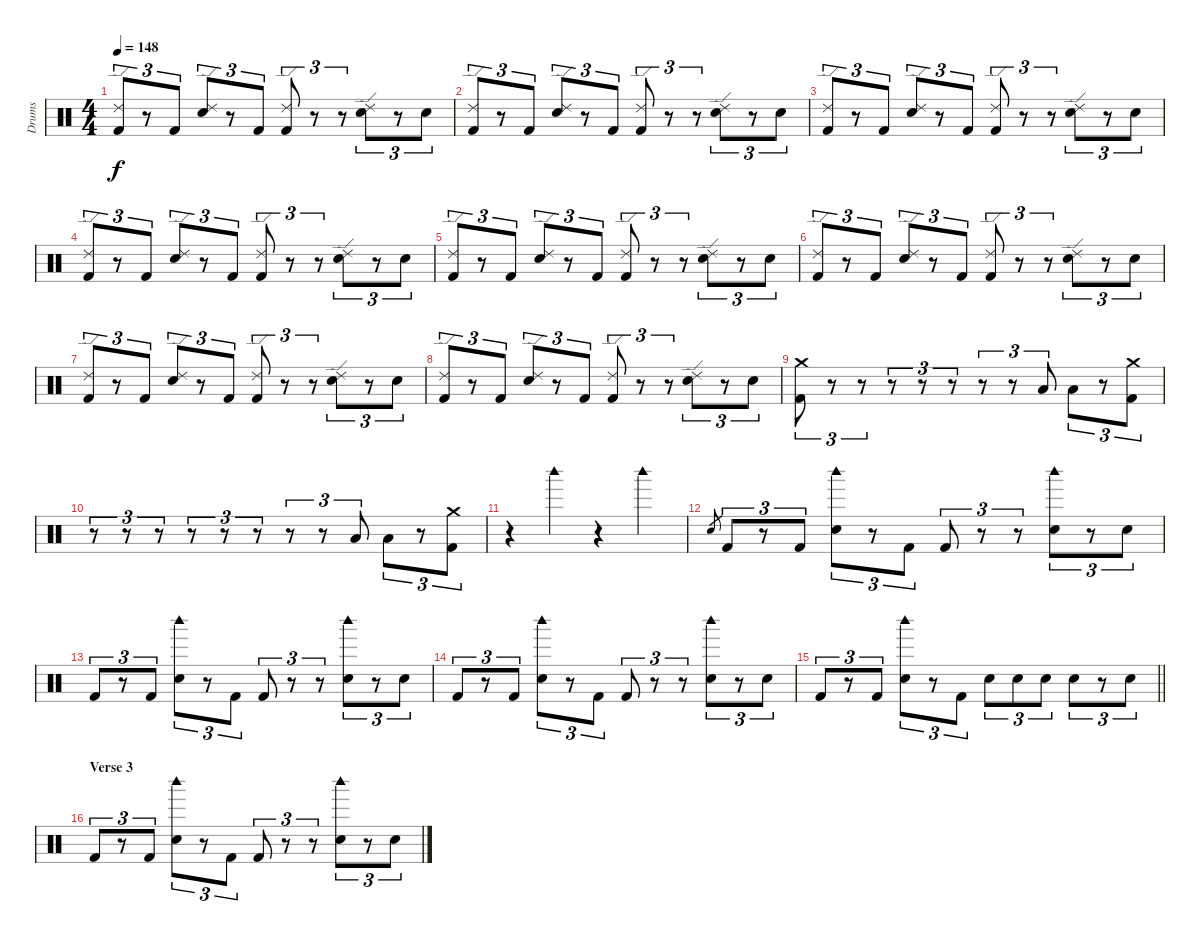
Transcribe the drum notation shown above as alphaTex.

\track ("Drums" "Drums") {instrument percussion}
\staff {score}
\articulation defaults
\ts (4 4)
\tempo 148
\clef neutral
\ks c
("Ride (edge) 2" "Kick (hit) 2").8{tu (3 2) dy f} r.8{tu (3 2)} "Kick (hit) 2".8{tu (3 2)} ("Ride (edge) 2" "Snare (hit) 2").8{tu (3 2)} r.8{tu (3 2)} "Kick (hit) 2".8{tu (3 2)} ("Ride (edge) 2" "Kick (hit) 2").8{tu (3 2)} r.8{tu (3 2)} r.8{tu (3 2)} ("Ride (edge) 2" "Snare (hit) 2").8{tu (3 2)} r.8{tu (3 2)} "Snare (hit) 2".8{tu (3 2)} |
("Ride (edge) 2" "Kick (hit) 2").8{tu (3 2)} r.8{tu (3 2)} "Kick (hit) 2".8{tu (3 2)} ("Ride (edge) 2" "Snare (hit) 2").8{tu (3 2)} r.8{tu (3 2)} "Kick (hit) 2".8{tu (3 2)} ("Ride (edge) 2" "Kick (hit) 2").8{tu (3 2)} r.8{tu (3 2)} r.8{tu (3 2)} ("Ride (edge) 2" "Snare (hit) 2").8{tu (3 2)} r.8{tu (3 2)} "Snare (hit) 2".8{tu (3 2)} |
("Ride (edge) 2" "Kick (hit) 2").8{tu (3 2)} r.8{tu (3 2)} "Kick (hit) 2".8{tu (3 2)} ("Ride (edge) 2" "Snare (hit) 2").8{tu (3 2)} r.8{tu (3 2)} "Kick (hit) 2".8{tu (3 2)} ("Ride (edge) 2" "Kick (hit) 2").8{tu (3 2)} r.8{tu (3 2)} r.8{tu (3 2)} ("Ride (edge) 2" "Snare (hit) 2").8{tu (3 2)} r.8{tu (3 2)} "Snare (hit) 2".8{tu (3 2)} |
("Ride (edge) 2" "Kick (hit) 2").8{tu (3 2)} r.8{tu (3 2)} "Kick (hit) 2".8{tu (3 2)} ("Ride (edge) 2" "Snare (hit) 2").8{tu (3 2)} r.8{tu (3 2)} "Kick (hit) 2".8{tu (3 2)} ("Ride (edge) 2" "Kick (hit) 2").8{tu (3 2)} r.8{tu (3 2)} r.8{tu (3 2)} ("Ride (edge) 2" "Snare (hit) 2").8{tu (3 2)} r.8{tu (3 2)} "Snare (hit) 2".8{tu (3 2)} |
("Ride (edge) 2" "Kick (hit) 2").8{tu (3 2)} r.8{tu (3 2)} "Kick (hit) 2".8{tu (3 2)} ("Ride (edge) 2" "Snare (hit) 2").8{tu (3 2)} r.8{tu (3 2)} "Kick (hit) 2".8{tu (3 2)} ("Ride (edge) 2" "Kick (hit) 2").8{tu (3 2)} r.8{tu (3 2)} r.8{tu (3 2)} ("Ride (edge) 2" "Snare (hit) 2").8{tu (3 2)} r.8{tu (3 2)} "Snare (hit) 2".8{tu (3 2)} |
("Ride (edge) 2" "Kick (hit) 2").8{tu (3 2)} r.8{tu (3 2)} "Kick (hit) 2".8{tu (3 2)} ("Ride (edge) 2" "Snare (hit) 2").8{tu (3 2)} r.8{tu (3 2)} "Kick (hit) 2".8{tu (3 2)} ("Ride (edge) 2" "Kick (hit) 2").8{tu (3 2)} r.8{tu (3 2)} r.8{tu (3 2)} ("Ride (edge) 2" "Snare (hit) 2").8{tu (3 2)} r.8{tu (3 2)} "Snare (hit) 2".8{tu (3 2)} |
("Ride (edge) 2" "Kick (hit) 2").8{tu (3 2)} r.8{tu (3 2)} "Kick (hit) 2".8{tu (3 2)} ("Ride (edge) 2" "Snare (hit) 2").8{tu (3 2)} r.8{tu (3 2)} "Kick (hit) 2".8{tu (3 2)} ("Ride (edge) 2" "Kick (hit) 2").8{tu (3 2)} r.8{tu (3 2)} r.8{tu (3 2)} ("Ride (edge) 2" "Snare (hit) 2").8{tu (3 2)} r.8{tu (3 2)} "Snare (hit) 2".8{tu (3 2)} |
("Ride (edge) 2" "Kick (hit) 2").8{tu (3 2)} r.8{tu (3 2)} "Kick (hit) 2".8{tu (3 2)} ("Ride (edge) 2" "Snare (hit) 2").8{tu (3 2)} r.8{tu (3 2)} "Kick (hit) 2".8{tu (3 2)} ("Ride (edge) 2" "Kick (hit) 2").8{tu (3 2)} r.8{tu (3 2)} r.8{tu (3 2)} ("Ride (edge) 2" "Snare (hit) 2").8{tu (3 2)} r.8{tu (3 2)} "Snare (hit) 2".8{tu (3 2)} |
("Crash medium (hit)" "Kick (hit) 2").8{tu (3 2)} r.8{tu (3 2)} r.8{tu (3 2)} r.8{tu (3 2)} r.8{tu (3 2)} r.8{tu (3 2)} r.8{tu (3 2)} r.8{tu (3 2)} "Low Tom (hit)".8{tu (3 2)} "Low Tom (hit)".8{tu (3 2)} r.8{tu (3 2)} ("Crash medium (hit)" "Kick (hit) 2").8{tu (3 2)} |
r.8{tu (3 2)} r.8{tu (3 2)} r.8{tu (3 2)} r.8{tu (3 2)} r.8{tu (3 2)} r.8{tu (3 2)} r.8{tu (3 2)} r.8{tu (3 2)} "Low Tom (hit)".8{tu (3 2)} "Low Tom (hit)".8{tu (3 2)} r.8{tu (3 2)} ("Crash medium (hit)" "Kick (hit) 2").8{tu (3 2)} |
r.4 "Woodblock high (hit)".4 r.4 "Woodblock high (hit)".4 |
"Snare (hit) 2".8{gr} "Kick (hit) 2".8{tu (3 2)} r.8{tu (3 2)} "Kick (hit) 2".8{tu (3 2)} ("Woodblock high (hit)" "Snare (hit) 2").8{tu (3 2)} r.8{tu (3 2)} "Kick (hit) 2".8{tu (3 2)} "Kick (hit) 2".8{tu (3 2)} r.8{tu (3 2)} r.8{tu (3 2)} ("Woodblock high (hit)" "Snare (hit) 2").8{tu (3 2)} r.8{tu (3 2)} "Snare (hit) 2".8{tu (3 2)} |
"Kick (hit) 2".8{tu (3 2)} r.8{tu (3 2)} "Kick (hit) 2".8{tu (3 2)} ("Woodblock high (hit)" "Snare (hit) 2").8{tu (3 2)} r.8{tu (3 2)} "Kick (hit) 2".8{tu (3 2)} "Kick (hit) 2".8{tu (3 2)} r.8{tu (3 2)} r.8{tu (3 2)} ("Woodblock high (hit)" "Snare (hit) 2").8{tu (3 2)} r.8{tu (3 2)} "Snare (hit) 2".8{tu (3 2)} |
"Kick (hit) 2".8{tu (3 2)} r.8{tu (3 2)} "Kick (hit) 2".8{tu (3 2)} ("Woodblock high (hit)" "Snare (hit) 2").8{tu (3 2)} r.8{tu (3 2)} "Kick (hit) 2".8{tu (3 2)} "Kick (hit) 2".8{tu (3 2)} r.8{tu (3 2)} r.8{tu (3 2)} ("Woodblock high (hit)" "Snare (hit) 2").8{tu (3 2)} r.8{tu (3 2)} "Snare (hit) 2".8{tu (3 2)} |
\barLineRight lightlight "Kick (hit) 2".8{tu (3 2)}
r.8{tu (3 2)} "Kick (hit) 2".8{tu (3 2)} ("Woodblock high (hit)" "Snare (hit) 2").8{tu (3 2)} r.8{tu (3 2)} "Kick (hit) 2".8{tu (3 2)} "Snare (hit) 2".8{tu (3 2)} "Snare (hit) 2".8{tu (3 2)} "Snare (hit) 2".8{tu (3 2)} "Snare (hit) 2".8{tu (3 2)} r.8{tu (3 2)} "Snare (hit) 2".8{tu (3 2)} |
\section ("" "Verse 3")
"Kick (hit) 2".8{tu (3 2)} r.8{tu (3 2)} "Kick (hit) 2".8{tu (3 2)} ("Woodblock high (hit)" "Snare (hit) 2").8{tu (3 2)} r.8{tu (3 2)} "Kick (hit) 2".8{tu (3 2)} "Kick (hit) 2".8{tu (3 2)} r.8{tu (3 2)} r.8{tu (3 2)} ("Woodblock high (hit)" "Snare (hit) 2").8{tu (3 2)} r.8{tu (3 2)} "Snare (hit) 2".8{tu (3 2)}
